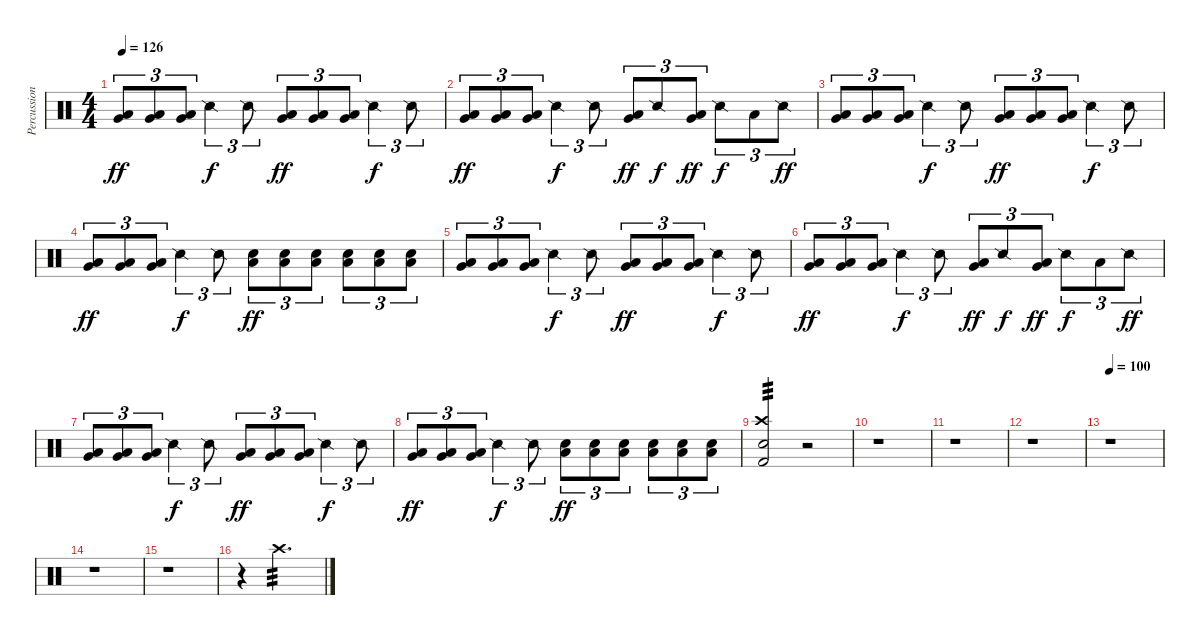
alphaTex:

\track ("Percussion" "Percussion") {instrument percussion}
\staff {score}
\articulation defaults
\ts (4 4)
\tempo 126
\clef neutral
\ks c
("Very Low Tom (hit)" "Low Floor Tom (hit)").8{tu (3 2) dy ff} ("Very Low Tom (hit)" "Low Floor Tom (hit)").8{tu (3 2)} ("Very Low Tom (hit)" "Low Floor Tom (hit)").8{tu (3 2)} "Snare (side stick) 2".4{tu (3 2) dy f} "Snare (side stick) 2".8{tu (3 2)} ("Very Low Tom (hit)" "Low Floor Tom (hit)").8{tu (3 2) dy ff} ("Very Low Tom (hit)" "Low Floor Tom (hit)").8{tu (3 2)} ("Very Low Tom (hit)" "Low Floor Tom (hit)").8{tu (3 2)} "Snare (side stick) 2".4{tu (3 2) dy f} "Snare (side stick) 2".8{tu (3 2)} |
("Very Low Tom (hit)" "Low Floor Tom (hit)").8{tu (3 2) dy ff} ("Very Low Tom (hit)" "Low Floor Tom (hit)").8{tu (3 2)} ("Very Low Tom (hit)" "Low Floor Tom (hit)").8{tu (3 2)} "Snare (side stick) 2".4{tu (3 2) dy f} "Snare (side stick) 2".8{tu (3 2)} ("Very Low Tom (hit)" "Low Floor Tom (hit)").8{tu (3 2) dy ff} "Snare (side stick) 2".8{tu (3 2) dy f} ("Very Low Tom (hit)" "Low Floor Tom (hit)").8{tu (3 2) dy ff} "Snare (side stick) 2".8{tu (3 2) dy f} "Low Floor Tom (hit)".8{tu (3 2)} "Snare (side stick) 2".8{tu (3 2) dy ff} |
("Very Low Tom (hit)" "Low Floor Tom (hit)").8{tu (3 2)} ("Very Low Tom (hit)" "Low Floor Tom (hit)").8{tu (3 2)} ("Very Low Tom (hit)" "Low Floor Tom (hit)").8{tu (3 2)} "Snare (side stick) 2".4{tu (3 2) dy f} "Snare (side stick) 2".8{tu (3 2)} ("Very Low Tom (hit)" "Low Floor Tom (hit)").8{tu (3 2) dy ff} ("Very Low Tom (hit)" "Low Floor Tom (hit)").8{tu (3 2)} ("Very Low Tom (hit)" "Low Floor Tom (hit)").8{tu (3 2)} "Snare (side stick) 2".4{tu (3 2) dy f} "Snare (side stick) 2".8{tu (3 2)} |
("Very Low Tom (hit)" "Low Floor Tom (hit)").8{tu (3 2) dy ff} ("Very Low Tom (hit)" "Low Floor Tom (hit)").8{tu (3 2)} ("Very Low Tom (hit)" "Low Floor Tom (hit)").8{tu (3 2)} "Snare (side stick) 2".4{tu (3 2) dy f} "Snare (side stick) 2".8{tu (3 2)} ("Electric Snare (hit)" "Low Floor Tom (hit)").8{tu (3 2) dy ff} ("Electric Snare (hit)" "Low Floor Tom (hit)").8{tu (3 2)} ("Electric Snare (hit)" "Low Floor Tom (hit)").8{tu (3 2)} ("Electric Snare (hit)" "Low Floor Tom (hit)").8{tu (3 2)} ("Electric Snare (hit)" "Low Floor Tom (hit)").8{tu (3 2)} ("Electric Snare (hit)" "Low Floor Tom (hit)").8{tu (3 2)} |
("Very Low Tom (hit)" "Low Floor Tom (hit)").8{tu (3 2)} ("Very Low Tom (hit)" "Low Floor Tom (hit)").8{tu (3 2)} ("Very Low Tom (hit)" "Low Floor Tom (hit)").8{tu (3 2)} "Snare (side stick) 2".4{tu (3 2) dy f} "Snare (side stick) 2".8{tu (3 2)} ("Very Low Tom (hit)" "Low Floor Tom (hit)").8{tu (3 2) dy ff} ("Very Low Tom (hit)" "Low Floor Tom (hit)").8{tu (3 2)} ("Very Low Tom (hit)" "Low Floor Tom (hit)").8{tu (3 2)} "Snare (side stick) 2".4{tu (3 2) dy f} "Snare (side stick) 2".8{tu (3 2)} |
("Very Low Tom (hit)" "Low Floor Tom (hit)").8{tu (3 2) dy ff} ("Very Low Tom (hit)" "Low Floor Tom (hit)").8{tu (3 2)} ("Very Low Tom (hit)" "Low Floor Tom (hit)").8{tu (3 2)} "Snare (side stick) 2".4{tu (3 2) dy f} "Snare (side stick) 2".8{tu (3 2)} ("Very Low Tom (hit)" "Low Floor Tom (hit)").8{tu (3 2) dy ff} "Snare (side stick) 2".8{tu (3 2) dy f} ("Very Low Tom (hit)" "Low Floor Tom (hit)").8{tu (3 2) dy ff} "Snare (side stick) 2".8{tu (3 2) dy f} "Low Floor Tom (hit)".8{tu (3 2)} "Snare (side stick) 2".8{tu (3 2) dy ff} |
("Very Low Tom (hit)" "Low Floor Tom (hit)").8{tu (3 2)} ("Very Low Tom (hit)" "Low Floor Tom (hit)").8{tu (3 2)} ("Very Low Tom (hit)" "Low Floor Tom (hit)").8{tu (3 2)} "Snare (side stick) 2".4{tu (3 2) dy f} "Snare (side stick) 2".8{tu (3 2)} ("Very Low Tom (hit)" "Low Floor Tom (hit)").8{tu (3 2) dy ff} ("Very Low Tom (hit)" "Low Floor Tom (hit)").8{tu (3 2)} ("Very Low Tom (hit)" "Low Floor Tom (hit)").8{tu (3 2)} "Snare (side stick) 2".4{tu (3 2) dy f} "Snare (side stick) 2".8{tu (3 2)} |
("Very Low Tom (hit)" "Low Floor Tom (hit)").8{tu (3 2) dy ff} ("Very Low Tom (hit)" "Low Floor Tom (hit)").8{tu (3 2)} ("Very Low Tom (hit)" "Low Floor Tom (hit)").8{tu (3 2)} "Snare (side stick) 2".4{tu (3 2) dy f} "Snare (side stick) 2".8{tu (3 2)} ("Electric Snare (hit)" "Low Floor Tom (hit)").8{tu (3 2) dy ff} ("Electric Snare (hit)" "Low Floor Tom (hit)").8{tu (3 2)} ("Electric Snare (hit)" "Low Floor Tom (hit)").8{tu (3 2)} ("Electric Snare (hit)" "Low Floor Tom (hit)").8{tu (3 2)} ("Electric Snare (hit)" "Low Floor Tom (hit)").8{tu (3 2)} ("Electric Snare (hit)" "Low Floor Tom (hit)").8{tu (3 2)} |
("Crash high (hit)" "Electric Snare (hit)" "Kick (hit) 2").2{tp 3} r.2 |
r.1 |
r.1 |
r.1 |
\tempo 100
r.1 |
r.1 |
r.1 |
r.4 "Crash high (hit)".2{d tp 3 volume 9}
